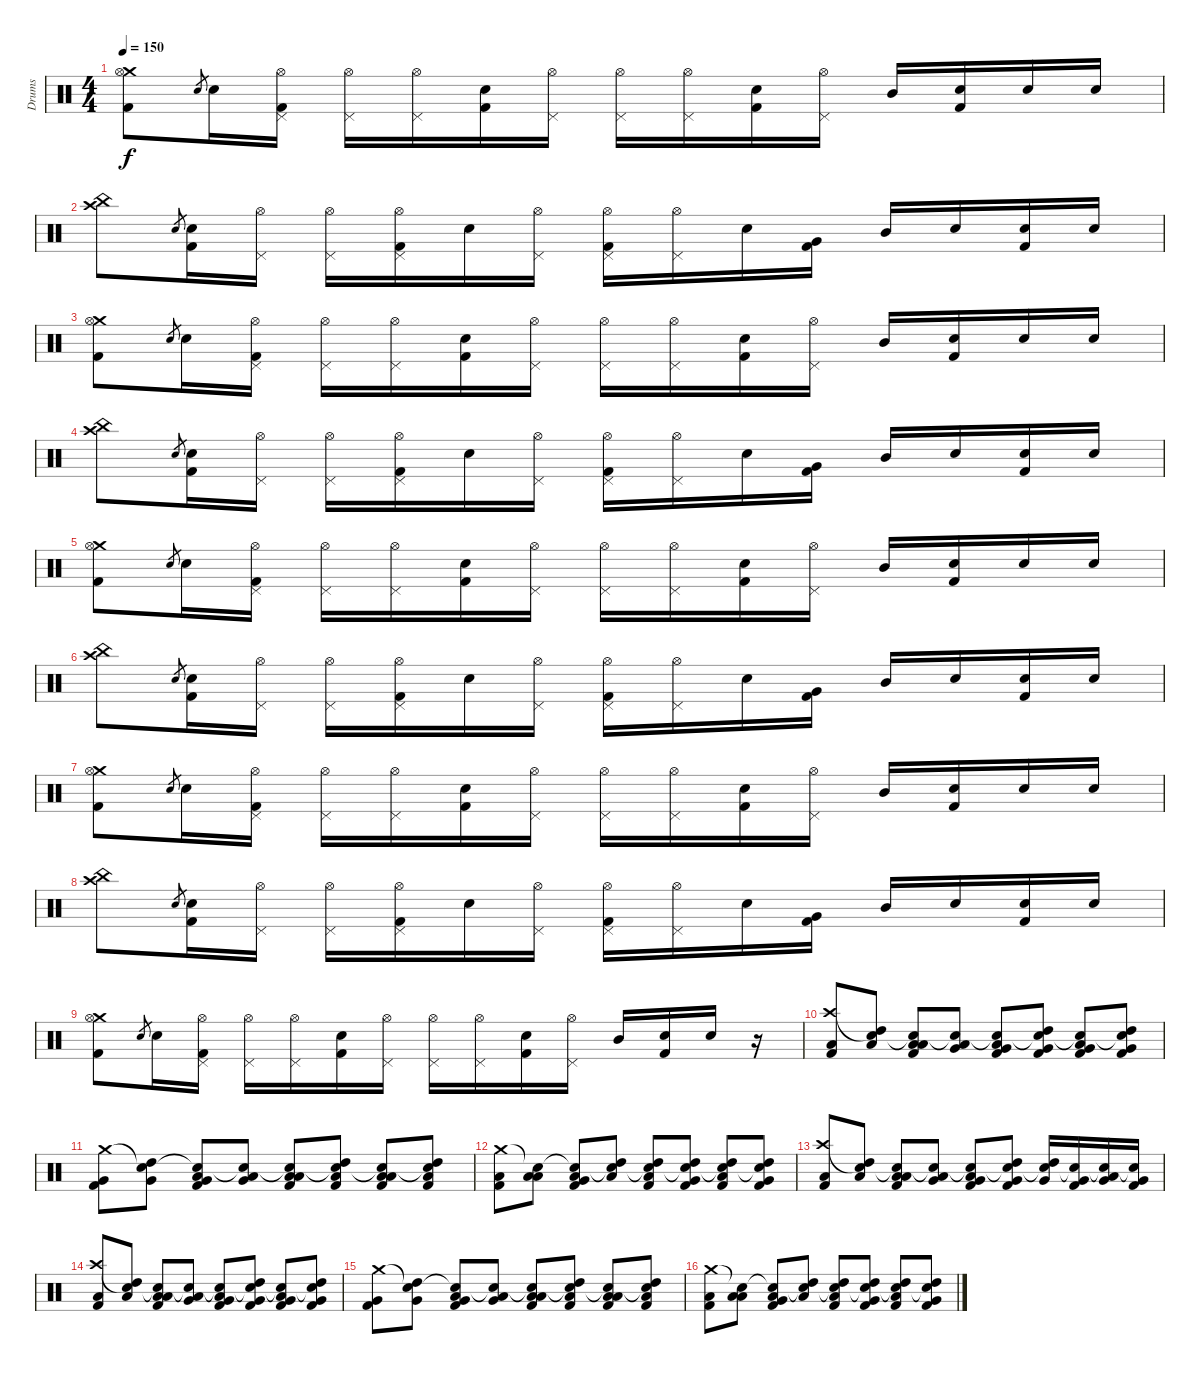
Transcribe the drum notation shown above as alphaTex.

\track ("Drums" "Drums") {instrument percussion}
\staff {score}
\articulation defaults
\ts (4 4)
\tempo 150
\clef neutral
\ks c
("Crash medium (hit)" "Kick (hit) 2" "Hi-Hat (open)").8{dy f} "Snare (hit) 2".8{gr} "Snare (hit) 2".16 ("Hi-Hat (open)" "Pedal Hi-Hat (hit)" "Kick (hit) 2").16 ("Hi-Hat (open)" "Pedal Hi-Hat (hit)").16 ("Hi-Hat (open)" "Pedal Hi-Hat (hit)").16 ("Snare (hit) 2" "Kick (hit) 2").16 ("Hi-Hat (open)" "Pedal Hi-Hat (hit)").16 ("Hi-Hat (open)" "Pedal Hi-Hat (hit)").16 ("Hi-Hat (open)" "Pedal Hi-Hat (hit)").16 ("Snare (hit) 2" "Kick (hit) 2").16 ("Hi-Hat (open)" "Pedal Hi-Hat (hit)").16 "Mid Tom (hit)".16 ("Snare (hit) 2" "Kick (hit) 2").16 "Snare (hit) 2".16 "Snare (hit) 2".16 |
("Crash high (hit)" "China (hit)").8 "Snare (hit) 2".8{gr} ("Snare (hit) 2" "Kick (hit) 2").16 ("Hi-Hat (open)" "Pedal Hi-Hat (hit)").16 ("Hi-Hat (open)" "Pedal Hi-Hat (hit)").16 ("Hi-Hat (open)" "Pedal Hi-Hat (hit)" "Kick (hit) 2").16 "Snare (hit) 2".16 ("Hi-Hat (open)" "Pedal Hi-Hat (hit)").16 ("Hi-Hat (open)" "Pedal Hi-Hat (hit)" "Kick (hit) 2").16 ("Hi-Hat (open)" "Pedal Hi-Hat (hit)").16 "Snare (hit) 2".16 ("Very Low Tom (hit)" "Kick (hit) 2").16 "Mid Tom (hit)".16 "Snare (hit) 2".16 ("Snare (hit) 2" "Kick (hit) 2").16 "Snare (hit) 2".16 |
("Crash medium (hit)" "Kick (hit) 2" "Hi-Hat (open)").8 "Snare (hit) 2".8{gr} "Snare (hit) 2".16 ("Hi-Hat (open)" "Pedal Hi-Hat (hit)" "Kick (hit) 2").16 ("Hi-Hat (open)" "Pedal Hi-Hat (hit)").16 ("Hi-Hat (open)" "Pedal Hi-Hat (hit)").16 ("Snare (hit) 2" "Kick (hit) 2").16 ("Hi-Hat (open)" "Pedal Hi-Hat (hit)").16 ("Hi-Hat (open)" "Pedal Hi-Hat (hit)").16 ("Hi-Hat (open)" "Pedal Hi-Hat (hit)").16 ("Snare (hit) 2" "Kick (hit) 2").16 ("Hi-Hat (open)" "Pedal Hi-Hat (hit)").16 "Mid Tom (hit)".16 ("Snare (hit) 2" "Kick (hit) 2").16 "Snare (hit) 2".16 "Snare (hit) 2".16 |
("Crash high (hit)" "China (hit)").8 "Snare (hit) 2".8{gr} ("Snare (hit) 2" "Kick (hit) 2").16 ("Hi-Hat (open)" "Pedal Hi-Hat (hit)").16 ("Hi-Hat (open)" "Pedal Hi-Hat (hit)").16 ("Hi-Hat (open)" "Pedal Hi-Hat (hit)" "Kick (hit) 2").16 "Snare (hit) 2".16 ("Hi-Hat (open)" "Pedal Hi-Hat (hit)").16 ("Hi-Hat (open)" "Pedal Hi-Hat (hit)" "Kick (hit) 2").16 ("Hi-Hat (open)" "Pedal Hi-Hat (hit)").16 "Snare (hit) 2".16 ("Very Low Tom (hit)" "Kick (hit) 2").16 "Mid Tom (hit)".16 "Snare (hit) 2".16 ("Snare (hit) 2" "Kick (hit) 2").16 "Snare (hit) 2".16 |
("Crash medium (hit)" "Kick (hit) 2" "Hi-Hat (open)").8 "Snare (hit) 2".8{gr} "Snare (hit) 2".16 ("Hi-Hat (open)" "Pedal Hi-Hat (hit)" "Kick (hit) 2").16 ("Hi-Hat (open)" "Pedal Hi-Hat (hit)").16 ("Hi-Hat (open)" "Pedal Hi-Hat (hit)").16 ("Snare (hit) 2" "Kick (hit) 2").16 ("Hi-Hat (open)" "Pedal Hi-Hat (hit)").16 ("Hi-Hat (open)" "Pedal Hi-Hat (hit)").16 ("Hi-Hat (open)" "Pedal Hi-Hat (hit)").16 ("Snare (hit) 2" "Kick (hit) 2").16 ("Hi-Hat (open)" "Pedal Hi-Hat (hit)").16 "Mid Tom (hit)".16 ("Snare (hit) 2" "Kick (hit) 2").16 "Snare (hit) 2".16 "Snare (hit) 2".16 |
("Crash high (hit)" "China (hit)").8 "Snare (hit) 2".8{gr} ("Snare (hit) 2" "Kick (hit) 2").16 ("Hi-Hat (open)" "Pedal Hi-Hat (hit)").16 ("Hi-Hat (open)" "Pedal Hi-Hat (hit)").16 ("Hi-Hat (open)" "Pedal Hi-Hat (hit)" "Kick (hit) 2").16 "Snare (hit) 2".16 ("Hi-Hat (open)" "Pedal Hi-Hat (hit)").16 ("Hi-Hat (open)" "Pedal Hi-Hat (hit)" "Kick (hit) 2").16 ("Hi-Hat (open)" "Pedal Hi-Hat (hit)").16 "Snare (hit) 2".16 ("Very Low Tom (hit)" "Kick (hit) 2").16 "Mid Tom (hit)".16 "Snare (hit) 2".16 ("Snare (hit) 2" "Kick (hit) 2").16 "Snare (hit) 2".16 |
("Crash medium (hit)" "Kick (hit) 2" "Hi-Hat (open)").8 "Snare (hit) 2".8{gr} "Snare (hit) 2".16 ("Hi-Hat (open)" "Pedal Hi-Hat (hit)" "Kick (hit) 2").16 ("Hi-Hat (open)" "Pedal Hi-Hat (hit)").16 ("Hi-Hat (open)" "Pedal Hi-Hat (hit)").16 ("Snare (hit) 2" "Kick (hit) 2").16 ("Hi-Hat (open)" "Pedal Hi-Hat (hit)").16 ("Hi-Hat (open)" "Pedal Hi-Hat (hit)").16 ("Hi-Hat (open)" "Pedal Hi-Hat (hit)").16 ("Snare (hit) 2" "Kick (hit) 2").16 ("Hi-Hat (open)" "Pedal Hi-Hat (hit)").16 "Mid Tom (hit)".16 ("Snare (hit) 2" "Kick (hit) 2").16 "Snare (hit) 2".16 "Snare (hit) 2".16 |
("Crash high (hit)" "China (hit)").8 "Snare (hit) 2".8{gr} ("Snare (hit) 2" "Kick (hit) 2").16 ("Hi-Hat (open)" "Pedal Hi-Hat (hit)").16 ("Hi-Hat (open)" "Pedal Hi-Hat (hit)").16 ("Hi-Hat (open)" "Pedal Hi-Hat (hit)" "Kick (hit) 2").16 "Snare (hit) 2".16 ("Hi-Hat (open)" "Pedal Hi-Hat (hit)").16 ("Hi-Hat (open)" "Pedal Hi-Hat (hit)" "Kick (hit) 2").16 ("Hi-Hat (open)" "Pedal Hi-Hat (hit)").16 "Snare (hit) 2".16 ("Very Low Tom (hit)" "Kick (hit) 2").16 "Mid Tom (hit)".16 "Snare (hit) 2".16 ("Snare (hit) 2" "Kick (hit) 2").16 "Snare (hit) 2".16 |
("Crash medium (hit)" "Kick (hit) 2" "Hi-Hat (open)").8 "Snare (hit) 2".8{gr} "Snare (hit) 2".16 ("Hi-Hat (open)" "Pedal Hi-Hat (hit)" "Kick (hit) 2").16 ("Hi-Hat (open)" "Pedal Hi-Hat (hit)").16 ("Hi-Hat (open)" "Pedal Hi-Hat (hit)").16 ("Snare (hit) 2" "Kick (hit) 2").16 ("Hi-Hat (open)" "Pedal Hi-Hat (hit)").16 ("Hi-Hat (open)" "Pedal Hi-Hat (hit)").16 ("Hi-Hat (open)" "Pedal Hi-Hat (hit)").16 ("Snare (hit) 2" "Kick (hit) 2").16 ("Hi-Hat (open)" "Pedal Hi-Hat (hit)").16 "Mid Tom (hit)".16 ("Snare (hit) 2" "Kick (hit) 2").16 "Snare (hit) 2".16 r.16 |
("Crash high (hit)" "Low Floor Tom (hit)" "Kick (hit) 2").8{volume 9} ("Snare (hit)"{t} "Low Floor Tom (hit)" "High Tom (hit)").8 ("Snare (hit)"{t} "Low Floor Tom (hit)" "Low Tom (hit)" "Kick (hit) 2").8 ("Snare (hit)"{t} "Low Floor Tom (hit)" "Very Low Tom (hit)").8 ("Snare (hit)"{t} "Very Low Tom (hit)" "Low Tom (hit)" "Kick (hit) 2").8 ("Snare (hit)"{t} "Very Low Tom (hit)" "Kick (hit) 2" "High Tom (hit)").8 ("Snare (hit)"{t} "Very Low Tom (hit)" "Low Tom (hit)" "Kick (hit) 2").8 ("Snare (hit)"{t} "Very Low Tom (hit)" "Kick (hit) 2" "High Tom (hit)").8 |
("Crash medium (hit)" "Very Low Tom (hit)" "Kick (hit) 2").8 ("Snare (hit)"{t} "Very Low Tom (hit)" "High Tom (hit)").8 ("Snare (hit)"{t} "Very Low Tom (hit)" "Low Tom (hit)" "Kick (hit) 2").8 ("Snare (hit)"{t} "Very Low Tom (hit)" "Low Floor Tom (hit)").8 ("Snare (hit)"{t} "Low Floor Tom (hit)" "Low Tom (hit)" "Kick (hit) 2").8 ("Snare (hit)"{t} "Low Floor Tom (hit)" "Kick (hit) 2" "High Tom (hit)").8 ("Snare (hit)"{t} "Low Floor Tom (hit)" "Low Tom (hit)" "Kick (hit) 2").8 ("Snare (hit)"{t} "Low Floor Tom (hit)" "Kick (hit) 2" "High Tom (hit)").8 |
("Crash medium (hit)" "Low Tom (hit)" "Kick (hit) 2").8 ("Snare (hit)"{t} "Low Tom (hit)" "Low Floor Tom (hit)").8 ("Snare (hit)"{t} "Low Tom (hit)" "Very Low Tom (hit)" "Kick (hit) 2").8 ("Snare (hit)"{t} "Low Tom (hit)" "High Tom (hit)").8 ("Snare (hit)"{t} "High Tom (hit)" "Low Floor Tom (hit)" "Kick (hit) 2").8 ("Snare (hit)"{t} "High Tom (hit)" "Kick (hit) 2" "Very Low Tom (hit)").8 ("Snare (hit)"{t} "High Tom (hit)" "Low Floor Tom (hit)" "Kick (hit) 2").8 ("Snare (hit)"{t} "High Tom (hit)" "Kick (hit) 2" "Very Low Tom (hit)").8 |
("Crash high (hit)" "Low Floor Tom (hit)" "Kick (hit) 2").8 ("Snare (hit)"{t} "Low Floor Tom (hit)" "High Tom (hit)").8 ("Snare (hit)"{t} "Low Floor Tom (hit)" "Low Tom (hit)" "Kick (hit) 2").8 ("Snare (hit)"{t} "Low Floor Tom (hit)" "Very Low Tom (hit)").8 ("Snare (hit)"{t} "Very Low Tom (hit)" "Low Tom (hit)" "Kick (hit) 2").8 ("Snare (hit)"{t} "Very Low Tom (hit)" "Kick (hit) 2" "High Tom (hit)").8 ("Snare (hit)"{t} "High Tom (hit)" "Very Low Tom (hit)").16 ("Snare (hit)"{t} "Kick (hit) 2" "Very Low Tom (hit)").16 ("Snare (hit)"{t} "Low Tom (hit)" "Very Low Tom (hit)").16 ("Snare (hit)"{t} "Kick (hit) 2" "Very Low Tom (hit)").16 |
("Crash high (hit)" "Low Floor Tom (hit)" "Kick (hit) 2").8 ("Snare (hit)"{t} "Low Floor Tom (hit)" "High Tom (hit)").8 ("Snare (hit)"{t} "Low Floor Tom (hit)" "Low Tom (hit)" "Kick (hit) 2").8 ("Snare (hit)"{t} "Low Floor Tom (hit)" "Very Low Tom (hit)").8 ("Snare (hit)"{t} "Very Low Tom (hit)" "Low Tom (hit)" "Kick (hit) 2").8 ("Snare (hit)"{t} "Very Low Tom (hit)" "Kick (hit) 2" "High Tom (hit)").8 ("Snare (hit)"{t} "Very Low Tom (hit)" "Low Tom (hit)" "Kick (hit) 2").8 ("Snare (hit)"{t} "Very Low Tom (hit)" "Kick (hit) 2" "High Tom (hit)").8 |
("Crash medium (hit)" "Very Low Tom (hit)" "Kick (hit) 2").8 ("Snare (hit)"{t} "Very Low Tom (hit)" "High Tom (hit)").8 ("Snare (hit)"{t} "Very Low Tom (hit)" "Low Tom (hit)" "Kick (hit) 2").8 ("Snare (hit)"{t} "Very Low Tom (hit)" "Low Floor Tom (hit)").8 ("Snare (hit)"{t} "Low Floor Tom (hit)" "Low Tom (hit)" "Kick (hit) 2").8 ("Snare (hit)"{t} "Low Floor Tom (hit)" "Kick (hit) 2" "High Tom (hit)").8 ("Snare (hit)"{t} "Low Floor Tom (hit)" "Low Tom (hit)" "Kick (hit) 2").8 ("Snare (hit)"{t} "Low Floor Tom (hit)" "Kick (hit) 2" "High Tom (hit)").8 |
("Crash medium (hit)" "Low Tom (hit)" "Kick (hit) 2").8 ("Snare (hit)"{t} "Low Tom (hit)" "Low Floor Tom (hit)").8 ("Snare (hit)"{t} "Low Tom (hit)" "Very Low Tom (hit)" "Kick (hit) 2").8 ("Snare (hit)"{t} "Low Tom (hit)" "High Tom (hit)").8 ("Snare (hit)"{t} "High Tom (hit)" "Low Floor Tom (hit)" "Kick (hit) 2").8 ("Snare (hit)"{t} "High Tom (hit)" "Kick (hit) 2" "Very Low Tom (hit)").8 ("Snare (hit)"{t} "High Tom (hit)" "Low Floor Tom (hit)" "Kick (hit) 2").8 ("Snare (hit)"{t} "High Tom (hit)" "Kick (hit) 2" "Very Low Tom (hit)").8
